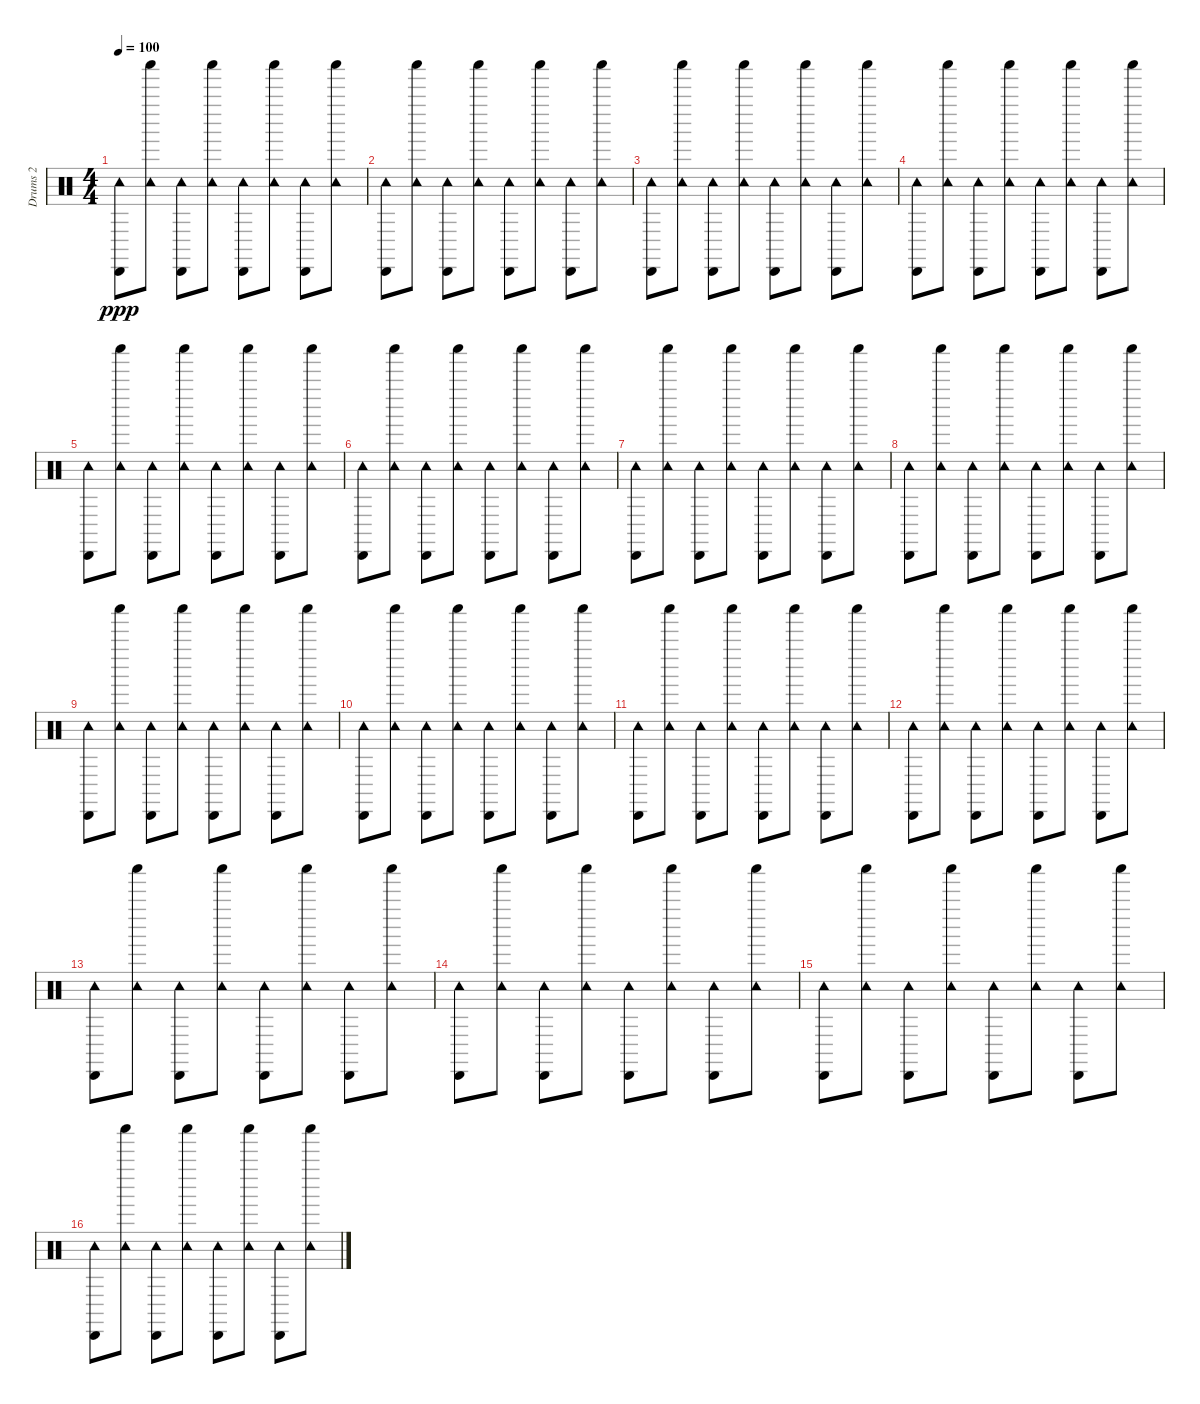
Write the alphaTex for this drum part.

\track ("Drums 2" "Drums 2") {instrument percussion}
\staff {score}
\articulation defaults
\ts (4 4)
\section ("" "")
\tempo 100
\clef neutral
\ks c
("Tambourine (hit)" "Cabasa (hit)").8{dy ppp} ("Tambourine (hit)" "Shaker (hit)").8 ("Tambourine (hit)" "Cabasa (hit)").8 ("Tambourine (hit)" "Shaker (hit)").8 ("Tambourine (hit)" "Cabasa (hit)").8 ("Tambourine (hit)" "Shaker (hit)").8 ("Tambourine (hit)" "Cabasa (hit)").8 ("Tambourine (hit)" "Shaker (hit)").8 |
("Tambourine (hit)" "Cabasa (hit)").8 ("Tambourine (hit)" "Shaker (hit)").8 ("Tambourine (hit)" "Cabasa (hit)").8 ("Tambourine (hit)" "Shaker (hit)").8 ("Tambourine (hit)" "Cabasa (hit)").8 ("Tambourine (hit)" "Shaker (hit)").8 ("Tambourine (hit)" "Cabasa (hit)").8 ("Tambourine (hit)" "Shaker (hit)").8 |
("Tambourine (hit)" "Cabasa (hit)").8 ("Tambourine (hit)" "Shaker (hit)").8 ("Tambourine (hit)" "Cabasa (hit)").8 ("Tambourine (hit)" "Shaker (hit)").8 ("Tambourine (hit)" "Cabasa (hit)").8 ("Tambourine (hit)" "Shaker (hit)").8 ("Tambourine (hit)" "Cabasa (hit)").8 ("Tambourine (hit)" "Shaker (hit)").8 |
("Tambourine (hit)" "Cabasa (hit)").8 ("Tambourine (hit)" "Shaker (hit)").8 ("Tambourine (hit)" "Cabasa (hit)").8 ("Tambourine (hit)" "Shaker (hit)").8 ("Tambourine (hit)" "Cabasa (hit)").8 ("Tambourine (hit)" "Shaker (hit)").8 ("Tambourine (hit)" "Cabasa (hit)").8 ("Tambourine (hit)" "Shaker (hit)").8 |
("Tambourine (hit)" "Cabasa (hit)").8 ("Tambourine (hit)" "Shaker (hit)").8 ("Tambourine (hit)" "Cabasa (hit)").8 ("Tambourine (hit)" "Shaker (hit)").8 ("Tambourine (hit)" "Cabasa (hit)").8 ("Tambourine (hit)" "Shaker (hit)").8 ("Tambourine (hit)" "Cabasa (hit)").8 ("Tambourine (hit)" "Shaker (hit)").8 |
("Tambourine (hit)" "Cabasa (hit)").8 ("Tambourine (hit)" "Shaker (hit)").8 ("Tambourine (hit)" "Cabasa (hit)").8 ("Tambourine (hit)" "Shaker (hit)").8 ("Tambourine (hit)" "Cabasa (hit)").8 ("Tambourine (hit)" "Shaker (hit)").8 ("Tambourine (hit)" "Cabasa (hit)").8 ("Tambourine (hit)" "Shaker (hit)").8 |
("Tambourine (hit)" "Cabasa (hit)").8 ("Tambourine (hit)" "Shaker (hit)").8 ("Tambourine (hit)" "Cabasa (hit)").8 ("Tambourine (hit)" "Shaker (hit)").8 ("Tambourine (hit)" "Cabasa (hit)").8 ("Tambourine (hit)" "Shaker (hit)").8 ("Tambourine (hit)" "Cabasa (hit)").8 ("Tambourine (hit)" "Shaker (hit)").8 |
("Tambourine (hit)" "Cabasa (hit)").8 ("Tambourine (hit)" "Shaker (hit)").8 ("Tambourine (hit)" "Cabasa (hit)").8 ("Tambourine (hit)" "Shaker (hit)").8 ("Tambourine (hit)" "Cabasa (hit)").8 ("Tambourine (hit)" "Shaker (hit)").8 ("Tambourine (hit)" "Cabasa (hit)").8 ("Tambourine (hit)" "Shaker (hit)").8 |
("Tambourine (hit)" "Cabasa (hit)").8 ("Tambourine (hit)" "Shaker (hit)").8 ("Tambourine (hit)" "Cabasa (hit)").8 ("Tambourine (hit)" "Shaker (hit)").8 ("Tambourine (hit)" "Cabasa (hit)").8 ("Tambourine (hit)" "Shaker (hit)").8 ("Tambourine (hit)" "Cabasa (hit)").8 ("Tambourine (hit)" "Shaker (hit)").8 |
("Tambourine (hit)" "Cabasa (hit)").8 ("Tambourine (hit)" "Shaker (hit)").8 ("Tambourine (hit)" "Cabasa (hit)").8 ("Tambourine (hit)" "Shaker (hit)").8 ("Tambourine (hit)" "Cabasa (hit)").8 ("Tambourine (hit)" "Shaker (hit)").8 ("Tambourine (hit)" "Cabasa (hit)").8 ("Tambourine (hit)" "Shaker (hit)").8 |
("Tambourine (hit)" "Cabasa (hit)").8 ("Tambourine (hit)" "Shaker (hit)").8 ("Tambourine (hit)" "Cabasa (hit)").8 ("Tambourine (hit)" "Shaker (hit)").8 ("Tambourine (hit)" "Cabasa (hit)").8 ("Tambourine (hit)" "Shaker (hit)").8 ("Tambourine (hit)" "Cabasa (hit)").8 ("Tambourine (hit)" "Shaker (hit)").8 |
("Tambourine (hit)" "Cabasa (hit)").8 ("Tambourine (hit)" "Shaker (hit)").8 ("Tambourine (hit)" "Cabasa (hit)").8 ("Tambourine (hit)" "Shaker (hit)").8 ("Tambourine (hit)" "Cabasa (hit)").8 ("Tambourine (hit)" "Shaker (hit)").8 ("Tambourine (hit)" "Cabasa (hit)").8 ("Tambourine (hit)" "Shaker (hit)").8 |
("Tambourine (hit)" "Cabasa (hit)").8 ("Tambourine (hit)" "Shaker (hit)").8 ("Tambourine (hit)" "Cabasa (hit)").8 ("Tambourine (hit)" "Shaker (hit)").8 ("Tambourine (hit)" "Cabasa (hit)").8 ("Tambourine (hit)" "Shaker (hit)").8 ("Tambourine (hit)" "Cabasa (hit)").8 ("Tambourine (hit)" "Shaker (hit)").8 |
("Tambourine (hit)" "Cabasa (hit)").8 ("Tambourine (hit)" "Shaker (hit)").8 ("Tambourine (hit)" "Cabasa (hit)").8 ("Tambourine (hit)" "Shaker (hit)").8 ("Tambourine (hit)" "Cabasa (hit)").8 ("Tambourine (hit)" "Shaker (hit)").8 ("Tambourine (hit)" "Cabasa (hit)").8 ("Tambourine (hit)" "Shaker (hit)").8 |
("Tambourine (hit)" "Cabasa (hit)").8 ("Tambourine (hit)" "Shaker (hit)").8 ("Tambourine (hit)" "Cabasa (hit)").8 ("Tambourine (hit)" "Shaker (hit)").8 ("Tambourine (hit)" "Cabasa (hit)").8 ("Tambourine (hit)" "Shaker (hit)").8 ("Tambourine (hit)" "Cabasa (hit)").8 ("Tambourine (hit)" "Shaker (hit)").8 |
("Tambourine (hit)" "Cabasa (hit)").8 ("Tambourine (hit)" "Shaker (hit)").8 ("Tambourine (hit)" "Cabasa (hit)").8 ("Tambourine (hit)" "Shaker (hit)").8 ("Tambourine (hit)" "Cabasa (hit)").8 ("Tambourine (hit)" "Shaker (hit)").8 ("Tambourine (hit)" "Cabasa (hit)").8 ("Tambourine (hit)" "Shaker (hit)").8
